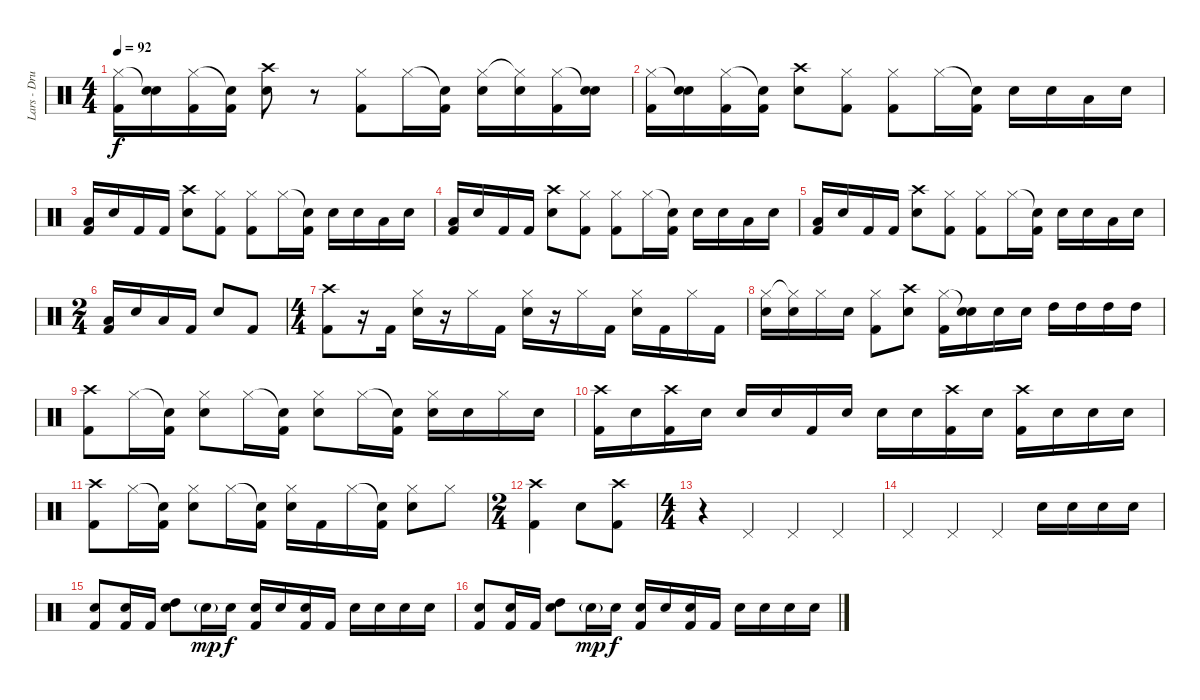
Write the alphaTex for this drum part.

\track ("Lars - Drums" "Lars - Dru") {instrument percussion}
\staff {score}
\articulation defaults
\ts (4 4)
\tempo 92
\clef neutral
\ks c
("Hi-Hat (closed)" "Kick (hit) 2").16{dy f} ("Snare (hit)"{t} "Electric Snare (hit)").16 ("Hi-Hat (closed)" "Kick (hit) 2").16 ("Snare (hit)"{t} "Kick (hit) 2").16 ("Crash high (hit)" "Electric Snare (hit)").8 r.8 ("Hi-Hat (closed)" "Kick (hit) 2").8 "Hi-Hat (closed)".16 ("Snare (hit)"{t} "Kick (hit) 2").16 ("Hi-Hat (closed)" "Electric Snare (hit)").16 ("Hi-Hat (closed)"{t} "Electric Snare (hit)").16 ("Hi-Hat (closed)" "Kick (hit) 2").16 ("Snare (hit)"{t} "Electric Snare (hit)").16 |
("Hi-Hat (closed)" "Kick (hit) 2").16 ("Snare (hit)"{t} "Electric Snare (hit)").16 ("Hi-Hat (closed)" "Kick (hit) 2").16 ("Snare (hit)"{t} "Kick (hit) 2").16 ("Crash high (hit)" "Electric Snare (hit)").8 ("Hi-Hat (closed)" "Kick (hit) 2").8 ("Hi-Hat (closed)" "Kick (hit) 2").8 "Hi-Hat (closed)".16 ("Snare (hit)"{t} "Kick (hit) 2").16 "Electric Snare (hit)".16 "Electric Snare (hit)".16 "Low Tom (hit)".16 "Electric Snare (hit)".16 |
("Low Tom (hit)" "Kick (hit) 2").16 "Electric Snare (hit)".16 "Kick (hit) 2".16 "Kick (hit) 2".16 ("Crash high (hit)" "Electric Snare (hit)").8 ("Hi-Hat (closed)" "Kick (hit) 2").8 ("Hi-Hat (closed)" "Kick (hit) 2").8 "Hi-Hat (closed)".16 ("Snare (hit)"{t} "Kick (hit) 2").16 "Electric Snare (hit)".16 "Electric Snare (hit)".16 "Low Tom (hit)".16 "Electric Snare (hit)".16 |
("Low Tom (hit)" "Kick (hit) 2").16 "Electric Snare (hit)".16 "Kick (hit) 2".16 "Kick (hit) 2".16 ("Crash high (hit)" "Electric Snare (hit)").8 ("Hi-Hat (closed)" "Kick (hit) 2").8 ("Hi-Hat (closed)" "Kick (hit) 2").8 "Hi-Hat (closed)".16 ("Snare (hit)"{t} "Kick (hit) 2").16 "Electric Snare (hit)".16 "Electric Snare (hit)".16 "Low Tom (hit)".16 "Electric Snare (hit)".16 |
("Low Tom (hit)" "Kick (hit) 2").16 "Electric Snare (hit)".16 "Kick (hit) 2".16 "Kick (hit) 2".16 ("Crash high (hit)" "Electric Snare (hit)").8 ("Hi-Hat (closed)" "Kick (hit) 2").8 ("Hi-Hat (closed)" "Kick (hit) 2").8 "Hi-Hat (closed)".16 ("Snare (hit)"{t} "Kick (hit) 2").16 "Electric Snare (hit)".16 "Electric Snare (hit)".16 "Low Tom (hit)".16 "Electric Snare (hit)".16 |
\ts (2 4)
("Low Tom (hit)" "Kick (hit) 2").16 "Electric Snare (hit)".16 "Low Tom (hit)".16 "Kick (hit) 2".16 "Electric Snare (hit)".8 "Kick (hit) 2".8 |
\ts (4 4)
("Crash high (hit)" "Kick (hit) 2").8 r.16 "Kick (hit) 2".16 ("Hi-Hat (closed)" "Electric Snare (hit)").16 r.16 "Hi-Hat (closed)".16 "Kick (hit) 2".16 ("Hi-Hat (closed)" "Electric Snare (hit)").16 r.16 "Hi-Hat (closed)".16 "Kick (hit) 2".16 ("Hi-Hat (closed)" "Electric Snare (hit)").16 "Kick (hit) 2".16 "Hi-Hat (closed)".16 "Kick (hit) 2".16 |
("Hi-Hat (closed)" "Electric Snare (hit)").16 ("Hi-Hat (closed)"{t} "Electric Snare (hit)").16 "Hi-Hat (closed)".16 "Electric Snare (hit)".16 ("Hi-Hat (closed)" "Kick (hit) 2").8 ("Crash high (hit)" "Electric Snare (hit)").8 ("Hi-Hat (closed)" "Kick (hit) 2").16 ("Snare (hit)"{t} "Electric Snare (hit)").16 "Electric Snare (hit)".16 "Electric Snare (hit)".16 "High Tom (hit)".16 "High Tom (hit)".16 "High Tom (hit)".16 "High Tom (hit)".16 |
("Crash high (hit)" "Kick (hit) 2").8 "Hi-Hat (closed)".16 ("Snare (hit)"{t} "Kick (hit) 2").16 ("Hi-Hat (closed)" "Electric Snare (hit)").8 "Hi-Hat (closed)".16 ("Snare (hit)"{t} "Kick (hit) 2").16 ("Hi-Hat (closed)" "Electric Snare (hit)").8 "Hi-Hat (closed)".16 ("Snare (hit)"{t} "Kick (hit) 2").16 ("Hi-Hat (closed)" "Electric Snare (hit)").16 "Electric Snare (hit)".16 "Hi-Hat (closed)".16 "Electric Snare (hit)".16 |
("Crash high (hit)" "Kick (hit) 2").16 "Electric Snare (hit)".16 ("Crash high (hit)" "Kick (hit) 2").16 "Electric Snare (hit)".16 "Electric Snare (hit)".16 "Electric Snare (hit)".16 "Kick (hit) 2".16 "Electric Snare (hit)".16 "Electric Snare (hit)".16 "Electric Snare (hit)".16 ("Crash high (hit)" "Kick (hit) 2").16 "Electric Snare (hit)".16 ("Crash high (hit)" "Kick (hit) 2").16 "Electric Snare (hit)".16 "Electric Snare (hit)".16 "Electric Snare (hit)".16 |
("Crash high (hit)" "Kick (hit) 2").8 "Hi-Hat (closed)".16 ("Snare (hit)"{t} "Kick (hit) 2").16 ("Hi-Hat (closed)" "Electric Snare (hit)").8 "Hi-Hat (closed)".16 ("Snare (hit)"{t} "Kick (hit) 2").16 ("Hi-Hat (closed)" "Electric Snare (hit)").16 "Kick (hit) 2".16 "Hi-Hat (closed)".16 ("Snare (hit)"{t} "Kick (hit) 2").16 ("Hi-Hat (closed)" "Electric Snare (hit)").8 "Hi-Hat (closed)".8 |
\ts (2 4)
("Crash high (hit)" "Kick (hit) 2").4 "Electric Snare (hit)".8 ("Crash high (hit)" "Kick (hit) 2").8 |
\ts (4 4)
r.4 "Pedal Hi-Hat (hit)".4 "Pedal Hi-Hat (hit)".4 "Pedal Hi-Hat (hit)".4 |
"Pedal Hi-Hat (hit)".4 "Pedal Hi-Hat (hit)".4 "Pedal Hi-Hat (hit)".4 "Electric Snare (hit)".16 "Electric Snare (hit)".16 "Electric Snare (hit)".16 "Electric Snare (hit)".16 |
("Electric Snare (hit)" "Kick (hit) 2").8 ("Electric Snare (hit)" "Kick (hit) 2").16 "Kick (hit) 2".16 ("High Tom (hit)" "Electric Snare (hit)").8 "Electric Snare (hit)"{g}.16{dy mp} "Electric Snare (hit)".16{dy f} ("Electric Snare (hit)" "Kick (hit) 2").16 "Electric Snare (hit)".16 ("Electric Snare (hit)" "Kick (hit) 2").16 "Kick (hit) 2".16 "Electric Snare (hit)".16 "Electric Snare (hit)".16 "Electric Snare (hit)".16 "Electric Snare (hit)".16 |
("Electric Snare (hit)" "Kick (hit) 2").8 ("Electric Snare (hit)" "Kick (hit) 2").16 "Kick (hit) 2".16 ("High Tom (hit)" "Electric Snare (hit)").8 "Electric Snare (hit)"{g}.16{dy mp} "Electric Snare (hit)".16{dy f} ("Electric Snare (hit)" "Kick (hit) 2").16 "Electric Snare (hit)".16 ("Electric Snare (hit)" "Kick (hit) 2").16 "Kick (hit) 2".16 "Electric Snare (hit)".16 "Electric Snare (hit)".16 "Electric Snare (hit)".16 "Electric Snare (hit)".16
